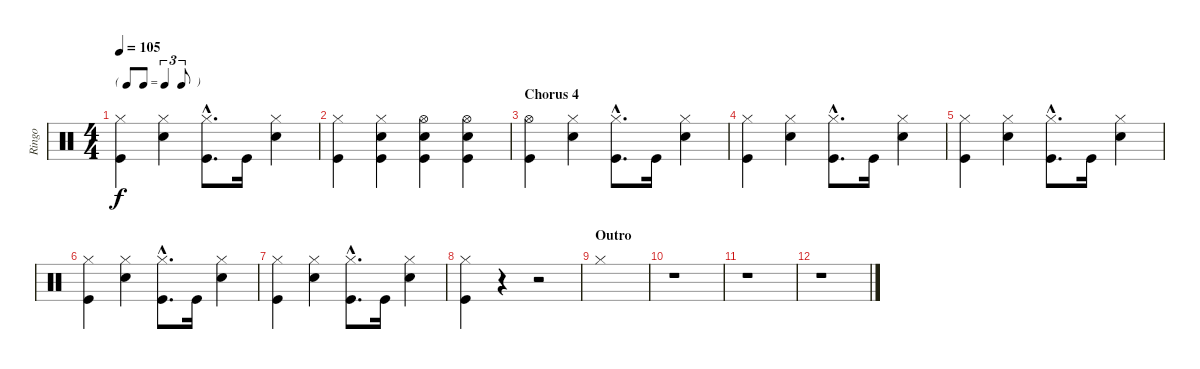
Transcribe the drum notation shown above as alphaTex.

\track ("Ringo" "Ringo") {instrument percussion}
\staff {score}
\articulation defaults
\ts (4 4)
\tf triplet8th
\tempo 105
\clef neutral
\ks c
("Hi-Hat (closed)" "Kick (hit)").4{dy f} ("Hi-Hat (closed)" "Snare (hit) 2").4 ("Hi-Hat (closed)"{hac} "Kick (hit)"{hac}).8{d} "Kick (hit)".16 ("Hi-Hat (closed)" "Snare (hit) 2").4 |
("Hi-Hat (closed)" "Kick (hit)").4 ("Hi-Hat (closed)" "Snare (hit) 2" "Kick (hit)").4 ("Hi-Hat (open)" "Snare (hit) 2" "Kick (hit)").4 ("Hi-Hat (open)" "Snare (hit) 2" "Kick (hit)").4 |
\section ("" "Chorus 4")
("Hi-Hat (open)" "Kick (hit)").4 ("Hi-Hat (closed)" "Snare (hit) 2").4 ("Hi-Hat (closed)"{hac} "Kick (hit)"{hac}).8{d} "Kick (hit)".16 ("Hi-Hat (closed)" "Snare (hit) 2").4 |
("Hi-Hat (closed)" "Kick (hit)").4 ("Hi-Hat (closed)" "Snare (hit) 2").4 ("Hi-Hat (closed)"{hac} "Kick (hit)"{hac}).8{d} "Kick (hit)".16 ("Hi-Hat (closed)" "Snare (hit) 2").4 |
("Hi-Hat (closed)" "Kick (hit)").4 ("Hi-Hat (closed)" "Snare (hit) 2").4 ("Hi-Hat (closed)"{hac} "Kick (hit)"{hac}).8{d} "Kick (hit)".16 ("Hi-Hat (closed)" "Snare (hit) 2").4 |
("Hi-Hat (closed)" "Kick (hit)").4 ("Hi-Hat (closed)" "Snare (hit) 2").4 ("Hi-Hat (closed)"{hac} "Kick (hit)"{hac}).8{d} "Kick (hit)".16 ("Hi-Hat (closed)" "Snare (hit) 2").4 |
("Hi-Hat (closed)" "Kick (hit)").4 ("Hi-Hat (closed)" "Snare (hit) 2").4 ("Hi-Hat (closed)"{hac} "Kick (hit)"{hac}).8{d} "Kick (hit)".16 ("Hi-Hat (closed)" "Snare (hit) 2").4 |
("Hi-Hat (closed)" "Kick (hit)").4 r.4 r.2 |
\section ("" "Outro")
"Hi-Hat (closed)".1 |
r.1 |
r.1 |
r.1
